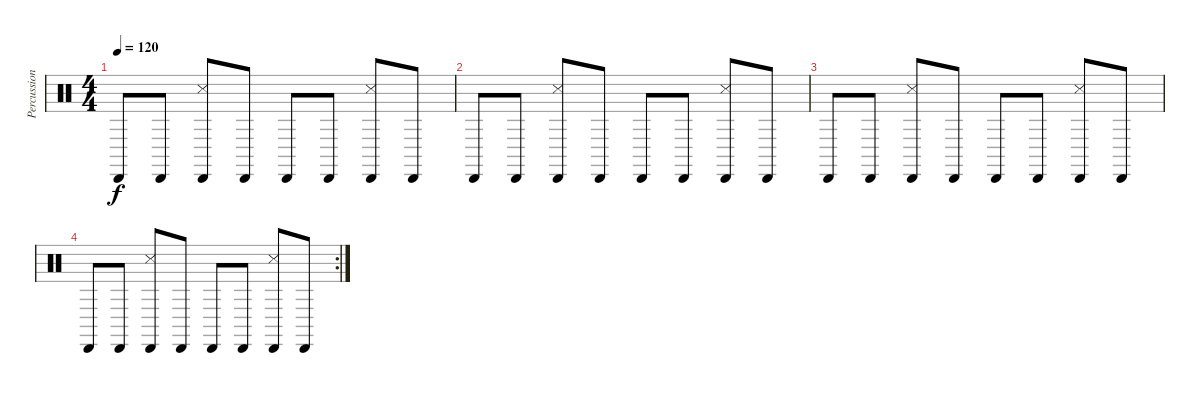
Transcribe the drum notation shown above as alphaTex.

\track ("Percussions" "Percussion") {instrument percussion}
\staff {score}
\articulation defaults
\ts (4 4)
\tempo 120
\clef neutral
\ks c "Cabasa (hit)".8{dy f} "Cabasa (hit)".8
("Snare (side stick) 3" "Cabasa (hit)").8 "Cabasa (hit)".8 "Cabasa (hit)".8 "Cabasa (hit)".8 ("Snare (side stick) 3" "Cabasa (hit)").8 "Cabasa (hit)".8 |
"Cabasa (hit)".8 "Cabasa (hit)".8 ("Snare (side stick) 3" "Cabasa (hit)").8 "Cabasa (hit)".8 "Cabasa (hit)".8 "Cabasa (hit)".8 ("Snare (side stick) 3" "Cabasa (hit)").8 "Cabasa (hit)".8 |
"Cabasa (hit)".8 "Cabasa (hit)".8 ("Snare (side stick) 3" "Cabasa (hit)").8 "Cabasa (hit)".8 "Cabasa (hit)".8 "Cabasa (hit)".8 ("Snare (side stick) 3" "Cabasa (hit)").8 "Cabasa (hit)".8 |
\rc 2 "Cabasa (hit)".8 "Cabasa (hit)".8
("Snare (side stick) 3" "Cabasa (hit)").8 "Cabasa (hit)".8 "Cabasa (hit)".8 "Cabasa (hit)".8 ("Snare (side stick) 3" "Cabasa (hit)").8 "Cabasa (hit)".8
